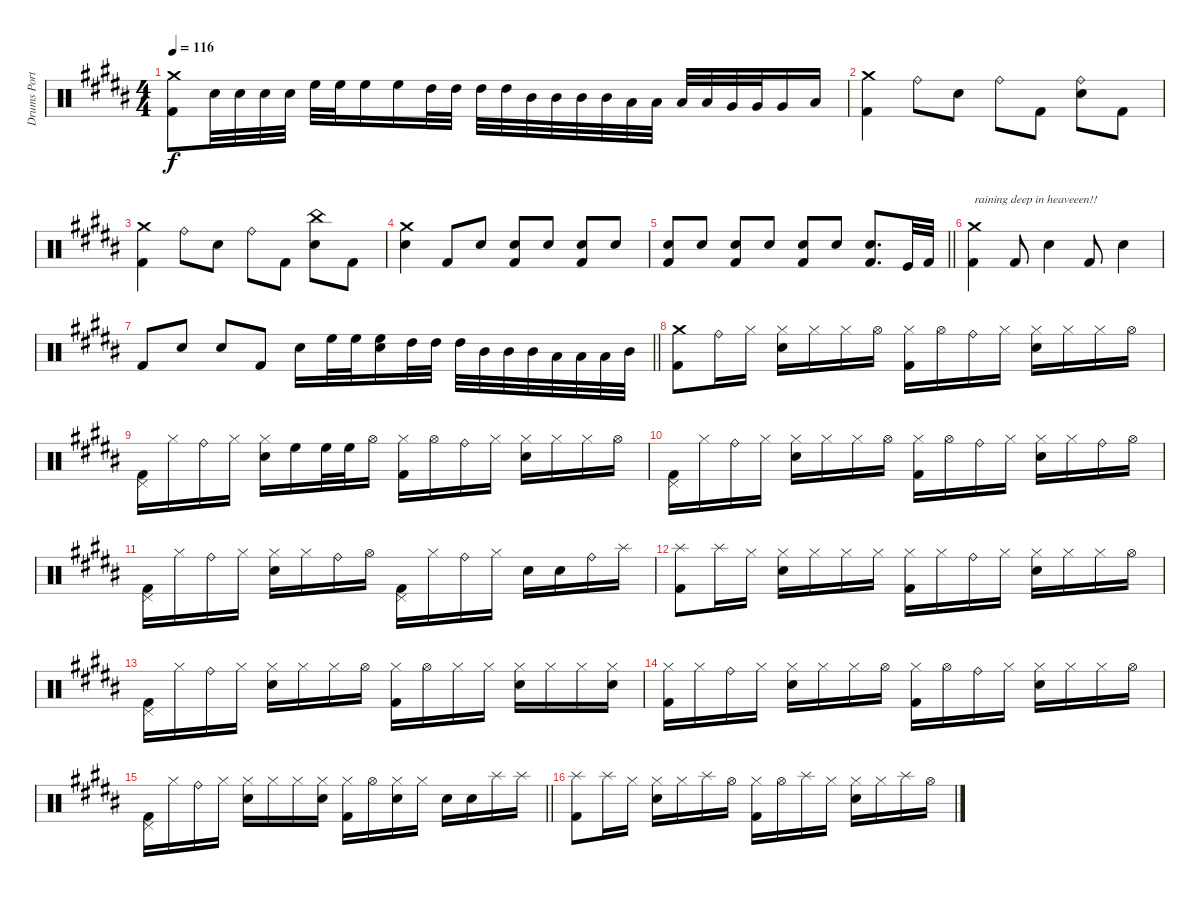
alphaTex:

\track ("Drums Portnoy" "Drums Port") {instrument percussion}
\staff {score}
\articulation defaults
\ts (4 4)
\tempo 116
\clef neutral
\ks g#minor
("Crash medium (hit)" "Kick (hit) 2").8{dy f} "Snare (hit) 2".32 "Snare (hit) 2".32 "Snare (hit) 2".32 "Snare (hit) 2".32 "High Floor Tom (hit)".32 "High Floor Tom (hit)".32 "High Floor Tom (hit)".16 "High Floor Tom (hit)".16 "High Tom (hit)".32 "High Tom (hit)".32 "High Tom (hit)".32 "High Tom (hit)".32 "Mid Tom (hit)".32 "Mid Tom (hit)".32 "Mid Tom (hit)".32 "Mid Tom (hit)".32 "Low Tom (hit)".32 "Low Tom (hit)".32 "Low Tom (hit)".32 "Low Tom (hit)".32 "Very Low Tom (hit)".32 "Very Low Tom (hit)".32 "Very Low Tom (hit)".16 "Low Floor Tom (hit)".16 |
\ks b
("Crash medium (hit)" "Kick (hit) 2").4 "Ride (bell)".8 "Snare (hit) 2".8 "Ride (bell)".8 "Kick (hit) 2".8 ("Ride (bell)" "Snare (hit) 2").8 "Kick (hit) 2".8 |
\ks g#minor
("Crash medium (hit)" "Kick (hit) 2").4 "Ride (bell)".8 "Snare (hit) 2".8 "Ride (bell)".8 "Kick (hit) 2".8 ("China (hit)" "Snare (hit) 2").8 "Kick (hit) 2".8 |
("Crash medium (hit)" "Snare (hit) 2").4 "Kick (hit) 2".8 "Snare (hit) 2".8 ("Snare (hit) 2" "Kick (hit) 2").8 "Snare (hit) 2".8 ("Snare (hit) 2" "Kick (hit) 2").8 "Snare (hit) 2".8 |
\barLineRight lightlight
\ks b
("Snare (hit) 2" "Kick (hit) 2").8 "Snare (hit) 2".8 ("Snare (hit) 2" "Kick (hit) 2").8 "Snare (hit) 2".8 ("Snare (hit) 2" "Kick (hit) 2").8 "Snare (hit) 2".8 ("Snare (hit) 2" "Kick (hit) 2").8{d} "Kick (hit)".32 "Kick (hit) 2".32 |
\ks g#minor
("Crash medium (hit)" "Kick (hit) 2").4{txt "raining deep in heaveeen!!"} "Kick (hit) 2".8 "Snare (hit) 2".4 "Kick (hit) 2".8 "Snare (hit) 2".4 |
\barLineRight lightlight
\ks b "Kick (hit) 2".8 "Snare (hit) 2".8 "Snare (hit) 2".8 "Kick (hit) 2".8 "Snare (hit) 2".16 "High Floor Tom (hit)".32 "High Floor Tom (hit)".32
("High Floor Tom (hit)" "Snare (hit) 2").16 "High Tom (hit)".32 "High Tom (hit)".32 "High Tom (hit)".32 "Mid Tom (hit)".32 "Mid Tom (hit)".32 "Mid Tom (hit)".32 "Low Tom (hit)".32 "Low Tom (hit)".32 "Low Tom (hit)".32 "Mid Tom (hit)".32 |
\ks g#minor
("Crash medium (hit)" "Kick (hit) 2").8 "Ride (bell)".16 "Hi-Hat (closed)".16 ("Hi-Hat (closed)" "Snare (hit) 2").16 "Hi-Hat (closed)".16 "Hi-Hat (closed)".16 "Hi-Hat (open)".16 ("Hi-Hat (closed)" "Kick (hit) 2").16 "Hi-Hat (open)".16 "Ride (bell)".16 "Hi-Hat (closed)".16 ("Hi-Hat (closed)" "Snare (hit) 2").16 "Hi-Hat (closed)".16 "Hi-Hat (closed)".16 "Hi-Hat (open)".16 |
("Pedal Hi-Hat (hit)" "Kick (hit) 2").16 "Hi-Hat (closed)".16 "Ride (bell)".16 "Hi-Hat (closed)".16 ("Hi-Hat (closed)" "Snare (hit) 2").16 "High Floor Tom (hit)".16 "High Floor Tom (hit)".32 "High Floor Tom (hit)".32 "Hi-Hat (open)".16 ("Hi-Hat (closed)" "Kick (hit) 2").16 "Hi-Hat (open)".16 "Ride (bell)".16 "Hi-Hat (closed)".16 ("Hi-Hat (closed)" "Snare (hit) 2").16 "Hi-Hat (closed)".16 "Hi-Hat (closed)".16 "Hi-Hat (open)".16 |
\ks b
("Pedal Hi-Hat (hit)" "Kick (hit) 2").16 "Hi-Hat (closed)".16 "Ride (bell)".16 "Hi-Hat (closed)".16 ("Hi-Hat (closed)" "Snare (hit) 2").16 "Hi-Hat (closed)".16 "Hi-Hat (closed)".16 "Hi-Hat (open)".16 ("Hi-Hat (closed)" "Kick (hit) 2").16 "Hi-Hat (open)".16 "Ride (bell)".16 "Hi-Hat (closed)".16 ("Hi-Hat (closed)" "Snare (hit) 2").16 "Hi-Hat (closed)".16 "Ride (bell)".16 "Hi-Hat (open)".16 |
\ks g#minor
("Pedal Hi-Hat (hit)" "Kick (hit) 2").16 "Hi-Hat (closed)".16 "Ride (bell)".16 "Hi-Hat (closed)".16 ("Hi-Hat (closed)" "Snare (hit) 2").16 "Hi-Hat (closed)".16 "Ride (bell)".16 "Hi-Hat (open)".16 ("Pedal Hi-Hat (hit)" "Kick (hit) 2").16 "Hi-Hat (closed)".16 "Ride (bell)".16 "Hi-Hat (closed)".16 "Snare (hit) 2".16 "Snare (hit) 2".16 "Ride (bell)".16 "Splash (hit)".16 |
("Splash (hit)" "Kick (hit) 2").8 "Splash (hit)".16 "Hi-Hat (closed)".16 ("Hi-Hat (closed)" "Snare (hit) 2").16 "Hi-Hat (closed)".16 "Hi-Hat (closed)".16 "Hi-Hat (closed)".16 ("Hi-Hat (closed)" "Kick (hit) 2").16 "Hi-Hat (closed)".16 "Ride (bell)".16 "Hi-Hat (closed)".16 ("Hi-Hat (closed)" "Snare (hit) 2").16 "Hi-Hat (closed)".16 "Hi-Hat (closed)".16 "Hi-Hat (open)".16 |
("Pedal Hi-Hat (hit)" "Kick (hit) 2").16 "Hi-Hat (closed)".16 "Ride (bell)".16 "Hi-Hat (closed)".16 ("Hi-Hat (closed)" "Snare (hit) 2").16 "Hi-Hat (closed)".16 "Hi-Hat (closed)".16 "Hi-Hat (open)".16 ("Hi-Hat (closed)" "Kick (hit) 2").16 "Hi-Hat (open)".16 "Hi-Hat (closed)".16 "Hi-Hat (closed)".16 ("Hi-Hat (closed)" "Snare (hit) 2").16 "Hi-Hat (closed)".16 "Hi-Hat (closed)".16 ("Hi-Hat (closed)" "Snare (hit) 2").16 |
("Hi-Hat (closed)" "Kick (hit) 2").16 "Hi-Hat (closed)".16 "Ride (bell)".16 "Hi-Hat (closed)".16 ("Hi-Hat (closed)" "Snare (hit) 2").16 "Hi-Hat (closed)".16 "Hi-Hat (closed)".16 "Hi-Hat (open)".16 ("Hi-Hat (closed)" "Kick (hit) 2").16 "Hi-Hat (open)".16 "Ride (bell)".16 "Hi-Hat (closed)".16 ("Hi-Hat (closed)" "Snare (hit) 2").16 "Hi-Hat (closed)".16 "Hi-Hat (closed)".16 "Hi-Hat (open)".16 |
\barLineRight lightlight
("Pedal Hi-Hat (hit)" "Kick (hit) 2").16 "Hi-Hat (closed)".16 "Ride (bell)".16 "Hi-Hat (closed)".16 ("Hi-Hat (closed)" "Snare (hit) 2").16 "Hi-Hat (closed)".16 "Hi-Hat (closed)".16 ("Hi-Hat (closed)" "Snare (hit) 2").16 ("Hi-Hat (closed)" "Kick (hit) 2").16 "Hi-Hat (open)".16 ("Hi-Hat (closed)" "Snare (hit) 2").16 "Hi-Hat (closed)".16 "Snare (hit) 2".16 "Snare (hit) 2".16 "Splash (hit)".16 "Splash (hit)".16 |
("Splash (hit)" "Kick (hit) 2").8 "Splash (hit)".16 "Hi-Hat (closed)".16 ("Hi-Hat (closed)" "Snare (hit) 2").16 "Hi-Hat (closed)".16 "Splash (hit)".16 "Hi-Hat (open)".16 ("Hi-Hat (closed)" "Kick (hit) 2").16 "Hi-Hat (open)".16 "Splash (hit)".16 "Hi-Hat (closed)".16 ("Hi-Hat (closed)" "Snare (hit) 2").16 "Hi-Hat (closed)".16 "Splash (hit)".16 "Hi-Hat (open)".16
